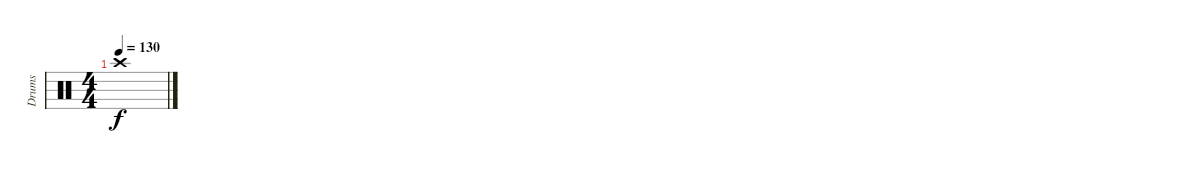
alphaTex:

\track ("Drums" "Drums") {instrument percussion}
\staff {score}
\articulation defaults
\ts (4 4)
\tempo 130
\clef neutral
\ks c "Crash high (hit)".1{dy f}
